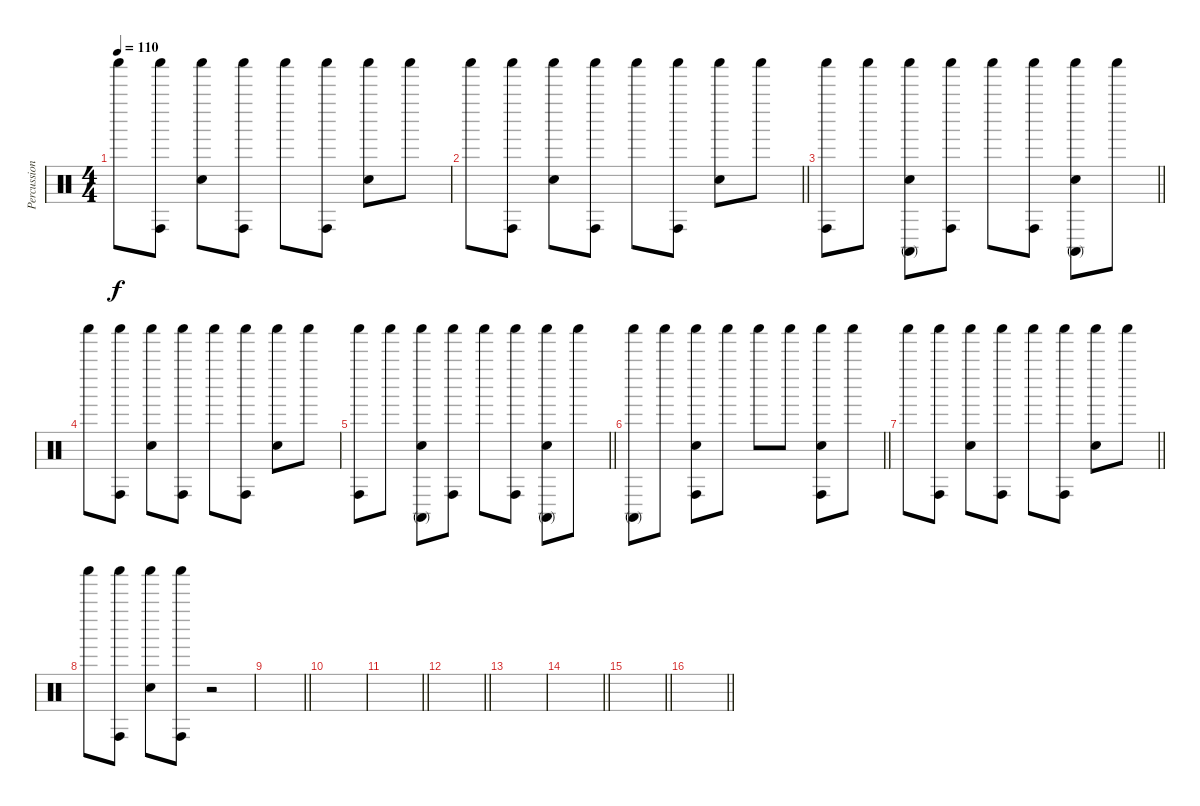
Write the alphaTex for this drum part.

\track ("Percussion" "Percussion") {instrument percussion}
\staff {score}
\articulation defaults
\ts (4 4)
\tempo 110
\clef neutral
\ks c "Shaker (hit)".8{dy f}
("Conga high (hit)" "Shaker (hit)").8 ("Hand Clap (hit)" "Shaker (hit)").8 ("Conga high (hit)" "Shaker (hit)").8 "Shaker (hit)".8 ("Conga high (hit)" "Shaker (hit)").8 ("Hand Clap (hit)" "Shaker (hit)").8 "Shaker (hit)".8 |
\barLineRight lightlight "Shaker (hit)".8
("Conga high (hit)" "Shaker (hit)").8 ("Hand Clap (hit)" "Shaker (hit)").8 ("Conga high (hit)" "Shaker (hit)").8 "Shaker (hit)".8 ("Conga high (hit)" "Shaker (hit)").8 ("Hand Clap (hit)" "Shaker (hit)").8 "Shaker (hit)".8 |
\barLineRight lightlight
("Conga high (hit)" "Shaker (hit)").8 "Shaker (hit)".8 ("Conga high (mute)" "Hand Clap (hit)" "Shaker (hit)").8 ("Conga high (hit)" "Shaker (hit)").8 "Shaker (hit)".8 ("Conga high (hit)" "Shaker (hit)").8 ("Conga high (mute)" "Hand Clap (hit)" "Shaker (hit)").8 "Shaker (hit)".8 |
"Shaker (hit)".8 ("Conga high (hit)" "Shaker (hit)").8 ("Hand Clap (hit)" "Shaker (hit)").8 ("Conga high (hit)" "Shaker (hit)").8 "Shaker (hit)".8 ("Conga high (hit)" "Shaker (hit)").8 ("Hand Clap (hit)" "Shaker (hit)").8 "Shaker (hit)".8 |
\barLineRight lightlight
("Conga high (hit)" "Shaker (hit)").8 "Shaker (hit)".8 ("Conga high (mute)" "Hand Clap (hit)" "Shaker (hit)").8 ("Conga high (hit)" "Shaker (hit)").8 "Shaker (hit)".8 ("Conga high (hit)" "Shaker (hit)").8 ("Conga high (mute)" "Hand Clap (hit)" "Shaker (hit)").8 "Shaker (hit)".8 |
\barLineRight lightlight
("Conga high (mute)" "Shaker (hit)").8 "Shaker (hit)".8 ("Conga high (hit)" "Hand Clap (hit)" "Shaker (hit)").8 "Shaker (hit)".8 "Shaker (hit)".8 "Shaker (hit)".8 ("Conga high (hit)" "Hand Clap (hit)" "Shaker (hit)").8 "Shaker (hit)".8 |
\barLineRight lightlight "Shaker (hit)".8
("Conga high (hit)" "Shaker (hit)").8 ("Hand Clap (hit)" "Shaker (hit)").8 ("Conga high (hit)" "Shaker (hit)").8 "Shaker (hit)".8 ("Conga high (hit)" "Shaker (hit)").8 ("Hand Clap (hit)" "Shaker (hit)").8 "Shaker (hit)".8 |
"Shaker (hit)".8 ("Conga high (hit)" "Shaker (hit)").8 ("Hand Clap (hit)" "Shaker (hit)").8 ("Conga high (hit)" "Shaker (hit)").8 r.2 |
\barLineRight lightlight
|
|
\barLineRight lightlight
|
\barLineRight lightlight
|
|
\barLineRight lightlight
|
\barLineRight lightlight
|
\barLineRight lightlight
